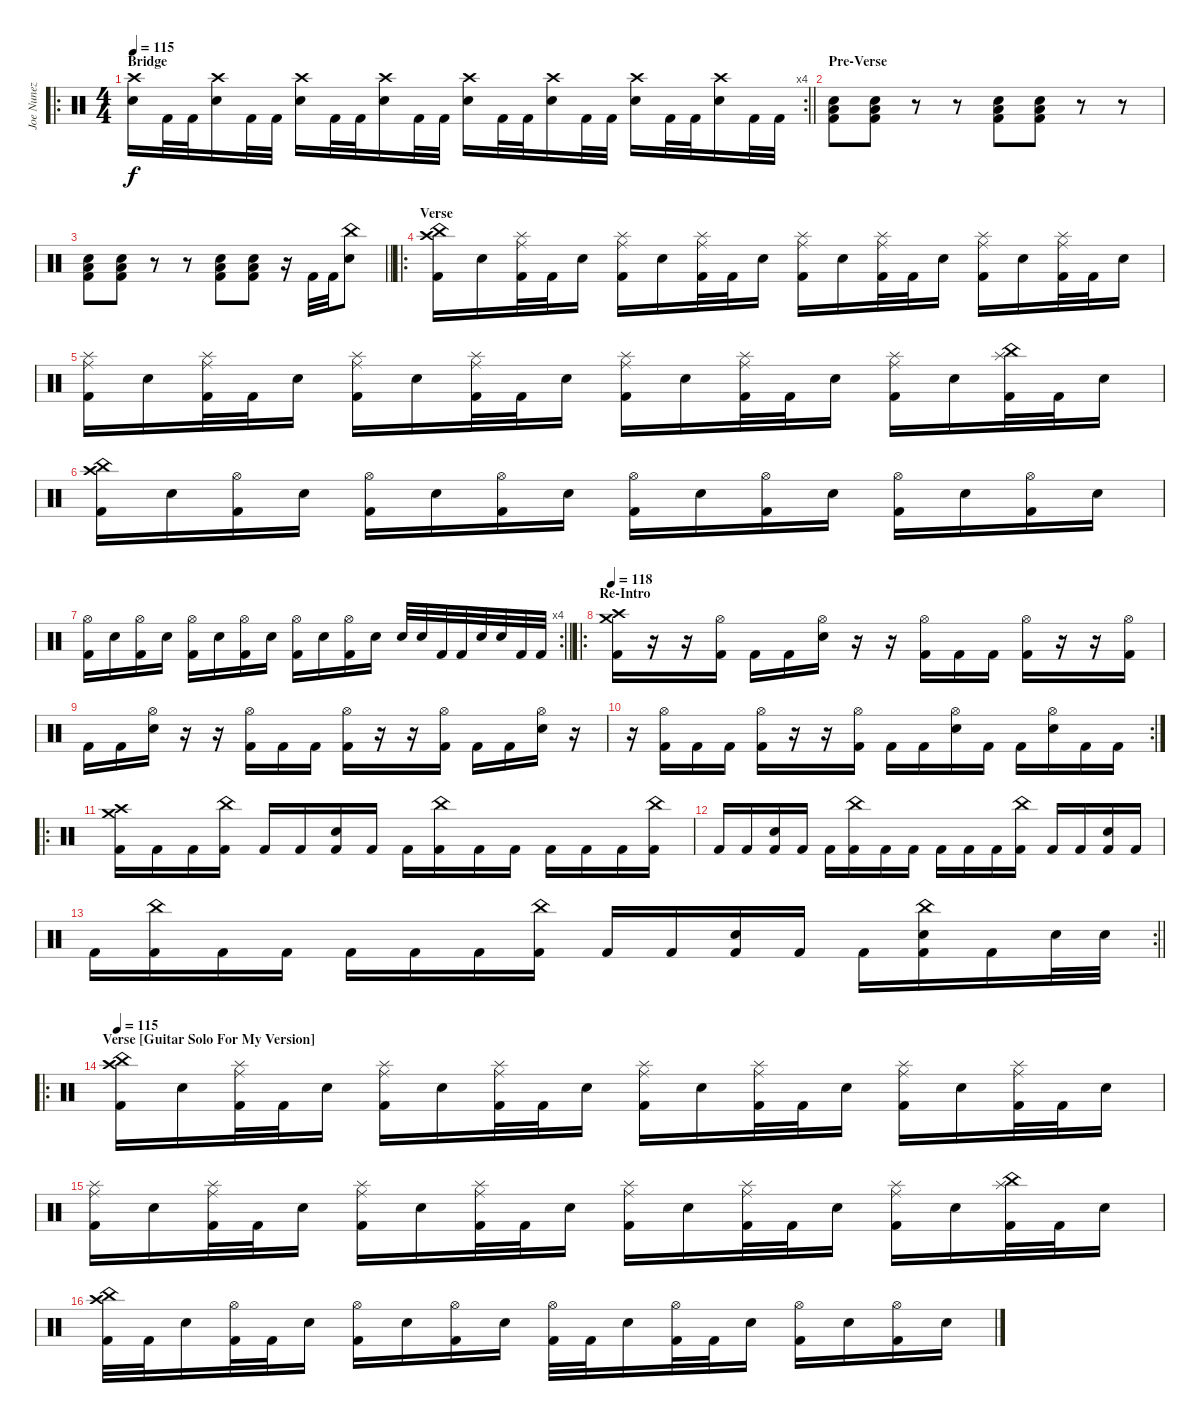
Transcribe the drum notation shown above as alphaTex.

\track ("Joe Nunez" "Joe Nunez") {instrument percussion}
\staff {score}
\articulation defaults
\ro
\rc 4
\ts (4 4)
\section ("" "Bridge")
\tempo 115
\clef neutral
\barLineRight lightlight
\ks c
("Crash high (hit)" "Electric Snare (hit)").16{dy f} "Kick (hit) 2".32 "Kick (hit) 2".32 ("Crash high (hit)" "Electric Snare (hit)").16 "Kick (hit) 2".32 "Kick (hit) 2".32 ("Crash high (hit)" "Electric Snare (hit)").16 "Kick (hit) 2".32 "Kick (hit) 2".32 ("Crash high (hit)" "Electric Snare (hit)").16 "Kick (hit) 2".32 "Kick (hit) 2".32 ("Crash high (hit)" "Electric Snare (hit)").16 "Kick (hit) 2".32 "Kick (hit) 2".32 ("Crash high (hit)" "Electric Snare (hit)").16 "Kick (hit) 2".32 "Kick (hit) 2".32 ("Crash high (hit)" "Electric Snare (hit)").16 "Kick (hit) 2".32 "Kick (hit) 2".32 ("Crash high (hit)" "Electric Snare (hit)").16 "Kick (hit) 2".32 "Kick (hit) 2".32 |
\section ("" "Pre-Verse")
("Low Floor Tom (hit)" "Electric Snare (hit)" "Kick (hit) 2").8 ("Low Floor Tom (hit)" "Electric Snare (hit)" "Kick (hit) 2").8 r.8 r.8 ("Low Floor Tom (hit)" "Electric Snare (hit)" "Kick (hit) 2").8 ("Low Floor Tom (hit)" "Electric Snare (hit)" "Kick (hit) 2").8 r.8 r.8 |
\barLineRight lightlight
("Low Floor Tom (hit)" "Electric Snare (hit)" "Kick (hit) 2").8 ("Low Floor Tom (hit)" "Electric Snare (hit)" "Kick (hit) 2").8 r.8 r.8 ("Low Floor Tom (hit)" "Electric Snare (hit)" "Kick (hit) 2").8 ("Low Floor Tom (hit)" "Electric Snare (hit)" "Kick (hit) 2").8 r.16 "Kick (hit) 2".32 "Kick (hit) 2".32 ("China (hit)" "Electric Snare (hit)").8 |
\ro
\section ("" "Verse")
("Crash high (hit)" "China (hit)" "Kick (hit) 2").16 "Electric Snare (hit)".16 ("Splash (hit)" "Ride (middle)" "Kick (hit) 2").32 "Kick (hit) 2".32 "Electric Snare (hit)".16 ("Splash (hit)" "Ride (middle)" "Kick (hit) 2").16 "Electric Snare (hit)".16 ("Splash (hit)" "Ride (middle)" "Kick (hit) 2").32 "Kick (hit) 2".32 "Electric Snare (hit)".16 ("Splash (hit)" "Ride (middle)" "Kick (hit) 2").16 "Electric Snare (hit)".16 ("Splash (hit)" "Ride (middle)" "Kick (hit) 2").32 "Kick (hit) 2".32 "Electric Snare (hit)".16 ("Splash (hit)" "Ride (middle)" "Kick (hit) 2").16 "Electric Snare (hit)".16 ("Splash (hit)" "Ride (middle)" "Kick (hit) 2").32 "Kick (hit) 2".32 "Electric Snare (hit)".16 |
("Splash (hit)" "Ride (middle)" "Kick (hit) 2").16 "Electric Snare (hit)".16 ("Splash (hit)" "Ride (middle)" "Kick (hit) 2").32 "Kick (hit) 2".32 "Electric Snare (hit)".16 ("Splash (hit)" "Ride (middle)" "Kick (hit) 2").16 "Electric Snare (hit)".16 ("Splash (hit)" "Ride (middle)" "Kick (hit) 2").32 "Kick (hit) 2".32 "Electric Snare (hit)".16 ("Splash (hit)" "Ride (middle)" "Kick (hit) 2").16 "Electric Snare (hit)".16 ("Splash (hit)" "Ride (middle)" "Kick (hit) 2").32 "Kick (hit) 2".32 "Electric Snare (hit)".16 ("Splash (hit)" "Ride (middle)" "Kick (hit) 2").16 "Electric Snare (hit)".16 ("China (hit)" "Splash (hit)" "Kick (hit) 2").32 "Kick (hit) 2".32 "Electric Snare (hit)".16 |
("China (hit)" "Crash high (hit)" "Kick (hit) 2").16 "Electric Snare (hit)".16 ("Hi-Hat (open)" "Kick (hit) 2").16 "Electric Snare (hit)".16 ("Hi-Hat (open)" "Kick (hit) 2").16 "Electric Snare (hit)".16 ("Hi-Hat (open)" "Kick (hit) 2").16 "Electric Snare (hit)".16 ("Hi-Hat (open)" "Kick (hit) 2").16 "Electric Snare (hit)".16 ("Hi-Hat (open)" "Kick (hit) 2").16 "Electric Snare (hit)".16 ("Hi-Hat (open)" "Kick (hit) 2").16 "Electric Snare (hit)".16 ("Hi-Hat (open)" "Kick (hit) 2").16 "Electric Snare (hit)".16 |
\rc 4
\barLineRight lightlight
("Hi-Hat (open)" "Kick (hit) 2").16 "Electric Snare (hit)".16 ("Hi-Hat (open)" "Kick (hit) 2").16 "Electric Snare (hit)".16 ("Hi-Hat (open)" "Kick (hit) 2").16 "Electric Snare (hit)".16 ("Hi-Hat (open)" "Kick (hit) 2").16 "Electric Snare (hit)".16 ("Hi-Hat (open)" "Kick (hit) 2").16 "Electric Snare (hit)".16 ("Hi-Hat (open)" "Kick (hit) 2").16 "Electric Snare (hit)".16 "Electric Snare (hit)".32 "Electric Snare (hit)".32 "Kick (hit) 2".32 "Kick (hit) 2".32 "Electric Snare (hit)".32 "Electric Snare (hit)".32 "Kick (hit) 2".32 "Kick (hit) 2".32 |
\ro
\section ("" "Re-Intro")
\tempo 118
("Crash high (hit)" "Crash medium (hit)" "Kick (hit) 2").16 r.16 r.16 ("Hi-Hat (open)" "Kick (hit) 2").16 "Kick (hit) 2".16 "Kick (hit) 2".16 ("Hi-Hat (open)" "Electric Snare (hit)").16 r.16 r.16 ("Hi-Hat (open)" "Kick (hit) 2").16 "Kick (hit) 2".16 "Kick (hit) 2".16 ("Hi-Hat (open)" "Kick (hit) 2").16 r.16 r.16 ("Hi-Hat (open)" "Kick (hit) 2").16 |
"Kick (hit) 2".16 "Kick (hit) 2".16 ("Hi-Hat (open)" "Electric Snare (hit)").16 r.16 r.16 ("Hi-Hat (open)" "Kick (hit) 2").16 "Kick (hit) 2".16 "Kick (hit) 2".16 ("Hi-Hat (open)" "Kick (hit) 2").16 r.16 r.16 ("Hi-Hat (open)" "Kick (hit) 2").16 "Kick (hit) 2".16 "Kick (hit) 2".16 ("Hi-Hat (open)" "Electric Snare (hit)").16 r.16 |
\rc 2
r.16 ("Hi-Hat (open)" "Kick (hit) 2").16 "Kick (hit) 2".16 "Kick (hit) 2".16 ("Hi-Hat (open)" "Kick (hit) 2").16 r.16 r.16 ("Hi-Hat (open)" "Kick (hit) 2").16 "Kick (hit) 2".16 "Kick (hit) 2".16 ("Hi-Hat (open)" "Electric Snare (hit)").16 "Kick (hit) 2".16 "Kick (hit) 2".16 ("Hi-Hat (open)" "Electric Snare (hit)").16 "Kick (hit) 2".16 "Kick (hit) 2".16 |
\ro
("Crash high (hit)" "Crash medium (hit)" "Kick (hit) 2").16 "Kick (hit) 2".16 "Kick (hit) 2".16 ("China (hit)" "Kick (hit) 2").16 "Kick (hit) 2".16 "Kick (hit) 2".16 ("Electric Snare (hit)" "Kick (hit) 2").16 "Kick (hit) 2".16 "Kick (hit) 2".16 ("China (hit)" "Kick (hit) 2").16 "Kick (hit) 2".16 "Kick (hit) 2".16 "Kick (hit) 2".16 "Kick (hit) 2".16 "Kick (hit) 2".16 ("China (hit)" "Kick (hit) 2").16 |
"Kick (hit) 2".16 "Kick (hit) 2".16 ("Electric Snare (hit)" "Kick (hit) 2").16 "Kick (hit) 2".16 "Kick (hit) 2".16 ("China (hit)" "Kick (hit) 2").16 "Kick (hit) 2".16 "Kick (hit) 2".16 "Kick (hit) 2".16 "Kick (hit) 2".16 "Kick (hit) 2".16 ("China (hit)" "Kick (hit) 2").16 "Kick (hit) 2".16 "Kick (hit) 2".16 ("Electric Snare (hit)" "Kick (hit) 2").16 "Kick (hit) 2".16 |
\rc 2
\barLineRight lightlight "Kick (hit) 2".16
("China (hit)" "Kick (hit) 2").16 "Kick (hit) 2".16 "Kick (hit) 2".16 "Kick (hit) 2".16 "Kick (hit) 2".16 "Kick (hit) 2".16 ("China (hit)" "Kick (hit) 2").16 "Kick (hit) 2".16 "Kick (hit) 2".16 ("Electric Snare (hit)" "Kick (hit) 2").16 "Kick (hit) 2".16 "Kick (hit) 2".16 ("China (hit)" "Electric Snare (hit)" "Kick (hit) 2").16 "Kick (hit) 2".16 "Electric Snare (hit)".32 "Electric Snare (hit)".32 |
\ro
\section ("" "Verse [Guitar Solo For My Version]")
\tempo 115
("Crash high (hit)" "China (hit)" "Kick (hit) 2").16 "Electric Snare (hit)".16 ("Splash (hit)" "Ride (middle)" "Kick (hit) 2").32 "Kick (hit) 2".32 "Electric Snare (hit)".16 ("Splash (hit)" "Ride (middle)" "Kick (hit) 2").16 "Electric Snare (hit)".16 ("Splash (hit)" "Ride (middle)" "Kick (hit) 2").32 "Kick (hit) 2".32 "Electric Snare (hit)".16 ("Splash (hit)" "Ride (middle)" "Kick (hit) 2").16 "Electric Snare (hit)".16 ("Splash (hit)" "Ride (middle)" "Kick (hit) 2").32 "Kick (hit) 2".32 "Electric Snare (hit)".16 ("Splash (hit)" "Ride (middle)" "Kick (hit) 2").16 "Electric Snare (hit)".16 ("Splash (hit)" "Ride (middle)" "Kick (hit) 2").32 "Kick (hit) 2".32 "Electric Snare (hit)".16 |
("Splash (hit)" "Ride (middle)" "Kick (hit) 2").16 "Electric Snare (hit)".16 ("Splash (hit)" "Ride (middle)" "Kick (hit) 2").32 "Kick (hit) 2".32 "Electric Snare (hit)".16 ("Splash (hit)" "Ride (middle)" "Kick (hit) 2").16 "Electric Snare (hit)".16 ("Splash (hit)" "Ride (middle)" "Kick (hit) 2").32 "Kick (hit) 2".32 "Electric Snare (hit)".16 ("Splash (hit)" "Ride (middle)" "Kick (hit) 2").16 "Electric Snare (hit)".16 ("Splash (hit)" "Ride (middle)" "Kick (hit) 2").32 "Kick (hit) 2".32 "Electric Snare (hit)".16 ("Splash (hit)" "Ride (middle)" "Kick (hit) 2").16 "Electric Snare (hit)".16 ("China (hit)" "Splash (hit)" "Kick (hit) 2").32 "Kick (hit) 2".32 "Electric Snare (hit)".16 |
("China (hit)" "Crash high (hit)" "Kick (hit) 2").32 "Kick (hit) 2".32 "Electric Snare (hit)".16 ("Hi-Hat (open)" "Kick (hit) 2").32 "Kick (hit) 2".32 "Electric Snare (hit)".16 ("Hi-Hat (open)" "Kick (hit) 2").16 "Electric Snare (hit)".16 ("Hi-Hat (open)" "Kick (hit) 2").16 "Electric Snare (hit)".16 ("Hi-Hat (open)" "Kick (hit) 2").32 "Kick (hit) 2".32 "Electric Snare (hit)".16 ("Hi-Hat (open)" "Kick (hit) 2").32 "Kick (hit) 2".32 "Electric Snare (hit)".16 ("Hi-Hat (open)" "Kick (hit) 2").16 "Electric Snare (hit)".16 ("Hi-Hat (open)" "Kick (hit) 2").16 "Electric Snare (hit)".16
